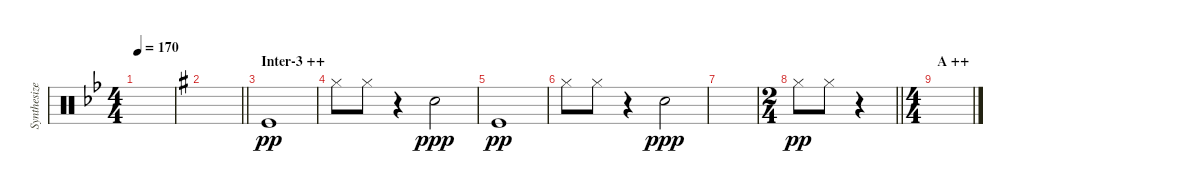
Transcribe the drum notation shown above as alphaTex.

\track ("Synthesizer B" "Synthesize") {instrument percussion}
\staff {score}
\articulation defaults
\ts (4 4)
\tempo 170
\clef neutral
\ks bb
|
\barLineRight lightlight
\ks g
|
\section ("" "Inter-3 ++")
"Kick (hit)".1{dy pp} |
"Hi-Hat (closed)".8 "Hi-Hat (closed)".8 r.4 "Snare (hit) 2".2{dy ppp} |
"Kick (hit)".1{dy pp} |
"Hi-Hat (closed)".8 "Hi-Hat (closed)".8 r.4 "Snare (hit) 2".2{dy ppp} |
|
\ts (2 4)
\barLineRight lightlight "Hi-Hat (closed)".8{dy pp} "Hi-Hat (closed)".8
r.4 |
\ts (4 4)
\section ("" "A ++")
